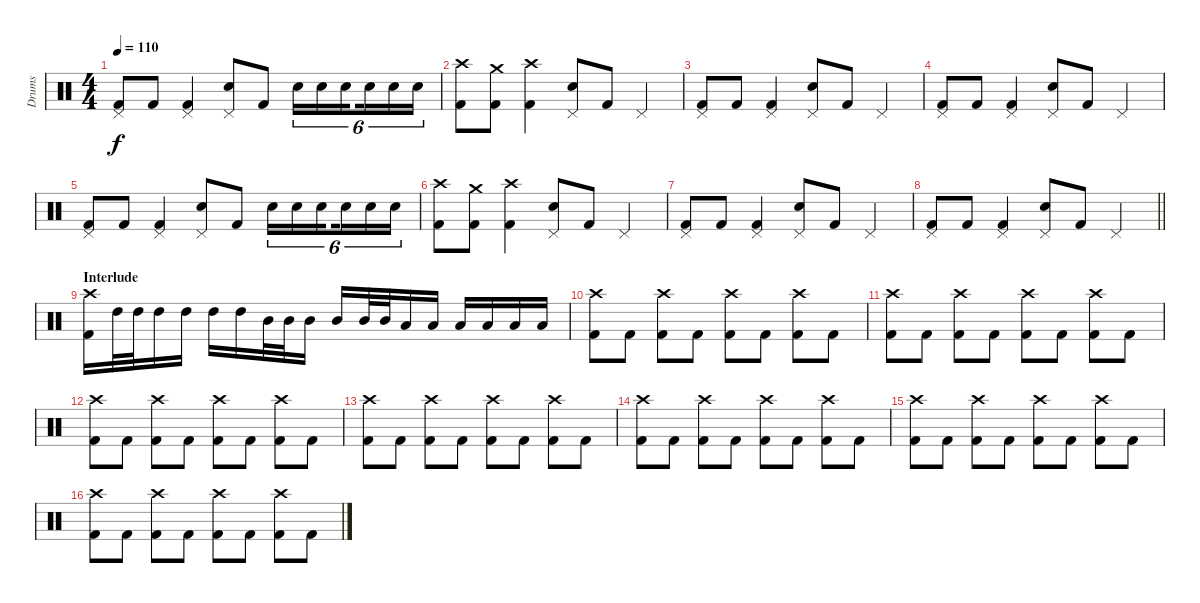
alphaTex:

\track ("Drums" "Drums") {instrument percussion}
\staff {score}
\articulation defaults
\ts (4 4)
\tempo 110
\clef neutral
\ks c
("Pedal Hi-Hat (hit)" "Kick (hit) 2").8{dy f} "Kick (hit) 2".8 ("Pedal Hi-Hat (hit)" "Kick (hit) 2").4 ("Pedal Hi-Hat (hit)" "Electric Snare (hit)").8 "Kick (hit) 2".8 "Electric Snare (hit)".16{tu (6 4)} "Electric Snare (hit)".16{tu (6 4)} "Electric Snare (hit)".16{tu (6 4) beam splitsecondary} "Electric Snare (hit)".16{tu (6 4)} "Electric Snare (hit)".16{tu (6 4)} "Electric Snare (hit)".16{tu (6 4)} |
("Crash high (hit)" "Kick (hit) 2").8 ("Crash medium (hit)" "Kick (hit) 2").8 ("Crash high (hit)" "Kick (hit) 2").4 ("Pedal Hi-Hat (hit)" "Electric Snare (hit)").8 "Kick (hit) 2".8 "Pedal Hi-Hat (hit)".4 |
("Pedal Hi-Hat (hit)" "Kick (hit) 2").8 "Kick (hit) 2".8 ("Pedal Hi-Hat (hit)" "Kick (hit) 2").4 ("Pedal Hi-Hat (hit)" "Electric Snare (hit)").8 "Kick (hit) 2".8 "Pedal Hi-Hat (hit)".4 |
("Pedal Hi-Hat (hit)" "Kick (hit) 2").8 "Kick (hit) 2".8 ("Pedal Hi-Hat (hit)" "Kick (hit) 2").4 ("Pedal Hi-Hat (hit)" "Electric Snare (hit)").8 "Kick (hit) 2".8 "Pedal Hi-Hat (hit)".4 |
("Pedal Hi-Hat (hit)" "Kick (hit) 2").8 "Kick (hit) 2".8 ("Pedal Hi-Hat (hit)" "Kick (hit) 2").4 ("Pedal Hi-Hat (hit)" "Electric Snare (hit)").8 "Kick (hit) 2".8 "Electric Snare (hit)".16{tu (6 4)} "Electric Snare (hit)".16{tu (6 4)} "Electric Snare (hit)".16{tu (6 4) beam splitsecondary} "Electric Snare (hit)".16{tu (6 4)} "Electric Snare (hit)".16{tu (6 4)} "Electric Snare (hit)".16{tu (6 4)} |
("Crash high (hit)" "Kick (hit) 2").8 ("Crash medium (hit)" "Kick (hit) 2").8 ("Crash high (hit)" "Kick (hit) 2").4 ("Pedal Hi-Hat (hit)" "Electric Snare (hit)").8 "Kick (hit) 2".8 "Pedal Hi-Hat (hit)".4 |
("Pedal Hi-Hat (hit)" "Kick (hit) 2").8 "Kick (hit) 2".8 ("Pedal Hi-Hat (hit)" "Kick (hit) 2").4 ("Pedal Hi-Hat (hit)" "Electric Snare (hit)").8 "Kick (hit) 2".8 "Pedal Hi-Hat (hit)".4 |
\barLineRight lightlight
("Pedal Hi-Hat (hit)" "Kick (hit) 2").8 "Kick (hit) 2".8 ("Pedal Hi-Hat (hit)" "Kick (hit) 2").4 ("Pedal Hi-Hat (hit)" "Electric Snare (hit)").8 "Kick (hit) 2".8 "Pedal Hi-Hat (hit)".4 |
\section ("" "Interlude")
("Crash high (hit)" "Kick (hit) 2").16 "High Tom (hit)".32 "High Tom (hit)".32 "High Tom (hit)".16 "High Tom (hit)".16 "High Tom (hit)".16 "High Tom (hit)".16 "Mid Tom (hit)".32 "Mid Tom (hit)".32 "Mid Tom (hit)".16 "Mid Tom (hit)".16 "Mid Tom (hit)".32 "Mid Tom (hit)".32 "Low Tom (hit)".16 "Low Tom (hit)".16 "Low Tom (hit)".16 "Low Tom (hit)".16 "Low Tom (hit)".16 "Low Tom (hit)".16 |
("Crash high (hit)" "Kick (hit) 2").8 "Kick (hit) 2".8 ("Crash high (hit)" "Kick (hit) 2").8 "Kick (hit) 2".8 ("Crash high (hit)" "Kick (hit) 2").8 "Kick (hit) 2".8 ("Crash high (hit)" "Kick (hit) 2").8 "Kick (hit) 2".8 |
("Crash high (hit)" "Kick (hit) 2").8 "Kick (hit) 2".8 ("Crash high (hit)" "Kick (hit) 2").8 "Kick (hit) 2".8 ("Crash high (hit)" "Kick (hit) 2").8 "Kick (hit) 2".8 ("Crash high (hit)" "Kick (hit) 2").8 "Kick (hit) 2".8 |
("Crash high (hit)" "Kick (hit) 2").8 "Kick (hit) 2".8 ("Crash high (hit)" "Kick (hit) 2").8 "Kick (hit) 2".8 ("Crash high (hit)" "Kick (hit) 2").8 "Kick (hit) 2".8 ("Crash high (hit)" "Kick (hit) 2").8 "Kick (hit) 2".8 |
("Crash high (hit)" "Kick (hit) 2").8 "Kick (hit) 2".8 ("Crash high (hit)" "Kick (hit) 2").8 "Kick (hit) 2".8 ("Crash high (hit)" "Kick (hit) 2").8 "Kick (hit) 2".8 ("Crash high (hit)" "Kick (hit) 2").8 "Kick (hit) 2".8 |
("Crash high (hit)" "Kick (hit) 2").8 "Kick (hit) 2".8 ("Crash high (hit)" "Kick (hit) 2").8 "Kick (hit) 2".8 ("Crash high (hit)" "Kick (hit) 2").8 "Kick (hit) 2".8 ("Crash high (hit)" "Kick (hit) 2").8 "Kick (hit) 2".8 |
("Crash high (hit)" "Kick (hit) 2").8 "Kick (hit) 2".8 ("Crash high (hit)" "Kick (hit) 2").8 "Kick (hit) 2".8 ("Crash high (hit)" "Kick (hit) 2").8 "Kick (hit) 2".8 ("Crash high (hit)" "Kick (hit) 2").8 "Kick (hit) 2".8 |
("Crash high (hit)" "Kick (hit) 2").8 "Kick (hit) 2".8 ("Crash high (hit)" "Kick (hit) 2").8 "Kick (hit) 2".8 ("Crash high (hit)" "Kick (hit) 2").8 "Kick (hit) 2".8 ("Crash high (hit)" "Kick (hit) 2").8 "Kick (hit) 2".8
